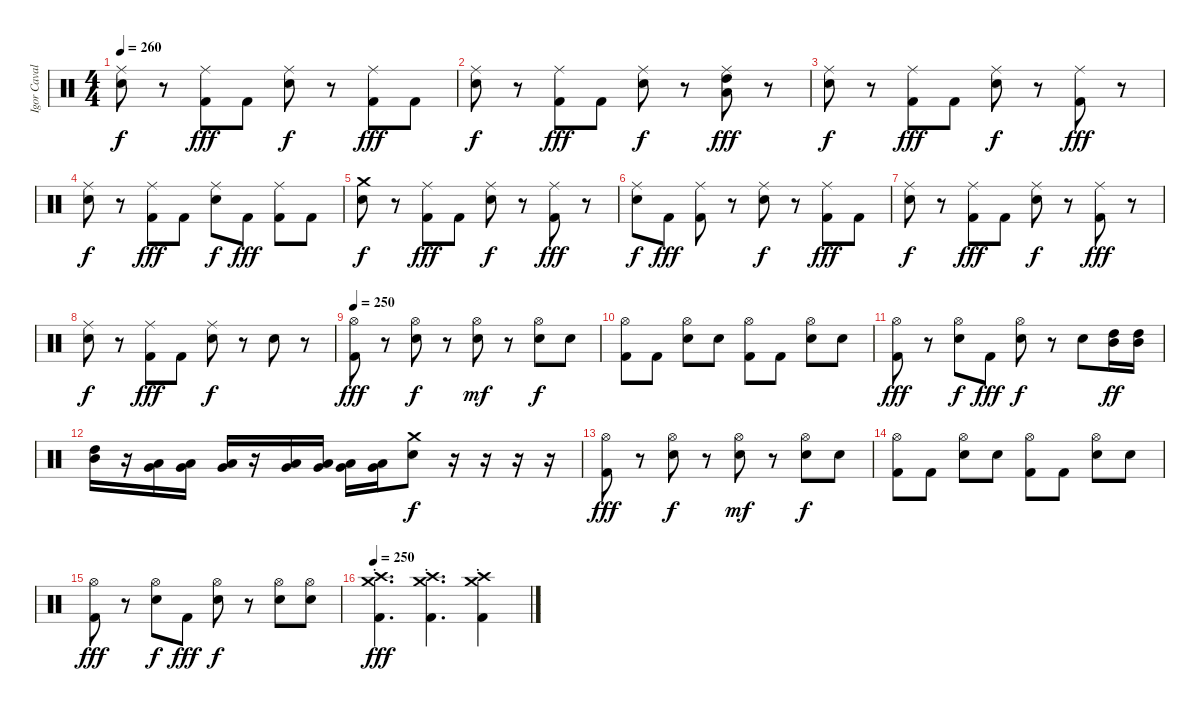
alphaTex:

\track ("Igor Cavalera" "Igor Caval") {instrument percussion}
\staff {score}
\articulation defaults
\ts (4 4)
\tempo 260
\clef neutral
\ks c
("Electric Snare (hit)" "Ride (middle)").8{dy f} r.8 ("Ride (middle)" "Kick (hit) 2").8{dy fff} "Kick (hit) 2".8 ("Electric Snare (hit)" "Ride (middle)").8{dy f} r.8 ("Ride (middle)" "Kick (hit) 2").8{dy fff} "Kick (hit) 2".8 |
("Electric Snare (hit)" "Ride (middle)").8{dy f} r.8 ("Ride (middle)" "Kick (hit) 2").8{dy fff} "Kick (hit) 2".8 ("Electric Snare (hit)" "Ride (middle)").8{dy f} r.8 ("High Tom (hit)" "Low Tom (hit)" "Ride (middle)").8{dy fff} r.8 |
("Electric Snare (hit)" "Ride (middle)").8{dy f} r.8 ("Ride (middle)" "Kick (hit) 2").8{dy fff} "Kick (hit) 2".8 ("Electric Snare (hit)" "Ride (middle)").8{dy f} r.8 ("Ride (middle)" "Kick (hit) 2").8{dy fff} r.8 |
("Electric Snare (hit)" "Ride (middle)").8{dy f} r.8 ("Ride (middle)" "Kick (hit) 2").8{dy fff} "Kick (hit) 2".8 ("Electric Snare (hit)" "Ride (middle)").8{dy f} "Kick (hit) 2".8{dy fff} ("Ride (middle)" "Kick (hit) 2").8 "Kick (hit) 2".8 |
("Crash medium (hit)" "Electric Snare (hit)").8{dy f} r.8 ("Ride (middle)" "Kick (hit) 2").8{dy fff} "Kick (hit) 2".8 ("Electric Snare (hit)" "Ride (middle)").8{dy f} r.8 ("Ride (middle)" "Kick (hit) 2").8{dy fff} r.8 |
("Electric Snare (hit)" "Ride (middle)").8{dy f} "Kick (hit) 2".8{dy fff} ("Ride (middle)" "Kick (hit) 2").8 r.8 ("Electric Snare (hit)" "Ride (middle)").8{dy f} r.8 ("Ride (middle)" "Kick (hit) 2").8{dy fff} "Kick (hit) 2".8 |
("Electric Snare (hit)" "Ride (middle)").8{dy f} r.8 ("Ride (middle)" "Kick (hit) 2").8{dy fff} "Kick (hit) 2".8 ("Electric Snare (hit)" "Ride (middle)").8{dy f} r.8 ("Ride (middle)" "Kick (hit) 2").8{dy fff} r.8 |
("Electric Snare (hit)" "Ride (middle)").8{dy f} r.8 ("Ride (middle)" "Kick (hit) 2").8{dy fff} "Kick (hit) 2".8 ("Electric Snare (hit)" "Ride (middle)").8{dy f} r.8 "Electric Snare (hit)".8 r.8 |
\tempo 248
\tempo 250
("Hi-Hat (open)" "Kick (hit) 2").8{dy fff} r.8 ("Electric Snare (hit)" "Hi-Hat (open)").8{dy f} r.8 ("Electric Snare (hit)" "Hi-Hat (open)").8{dy mf} r.8 ("Electric Snare (hit)" "Hi-Hat (open)").8{dy f} "Electric Snare (hit)".8 |
("Hi-Hat (open)" "Kick (hit) 2").8 "Kick (hit) 2".8 ("Electric Snare (hit)" "Hi-Hat (open)").8 "Electric Snare (hit)".8 ("Hi-Hat (open)" "Kick (hit) 2").8 "Kick (hit) 2".8 ("Electric Snare (hit)" "Hi-Hat (open)").8 "Electric Snare (hit)".8 |
("Hi-Hat (open)" "Kick (hit) 2").8{dy fff} r.8 ("Electric Snare (hit)" "Hi-Hat (open)").8{dy f} "Kick (hit) 2".8{dy fff} ("Electric Snare (hit)" "Hi-Hat (open)").8{dy f} r.8 "Electric Snare (hit)".8 ("High Tom (hit)" "Mid Tom (hit)").16{dy ff} ("High Tom (hit)" "Mid Tom (hit)").16 |
("High Tom (hit)" "Mid Tom (hit)").16 r.16 ("Low Tom (hit)" "Very Low Tom (hit)").16 ("Low Tom (hit)" "Very Low Tom (hit)").16 ("Low Tom (hit)" "Very Low Tom (hit)").16 r.16 ("Very Low Tom (hit)" "Low Floor Tom (hit)").16 ("Very Low Tom (hit)" "Low Floor Tom (hit)").16 ("Very Low Tom (hit)" "Low Floor Tom (hit)").16 ("Very Low Tom (hit)" "Low Floor Tom (hit)").16 ("Crash medium (hit)" "Electric Snare (hit)").8{dy f} r.16 r.16 r.16 r.16 |
("Hi-Hat (open)" "Kick (hit) 2").8{dy fff} r.8 ("Electric Snare (hit)" "Hi-Hat (open)").8{dy f} r.8 ("Electric Snare (hit)" "Hi-Hat (open)").8{dy mf} r.8 ("Electric Snare (hit)" "Hi-Hat (open)").8{dy f} "Electric Snare (hit)".8 |
("Hi-Hat (open)" "Kick (hit) 2").8 "Kick (hit) 2".8 ("Electric Snare (hit)" "Hi-Hat (open)").8 "Electric Snare (hit)".8 ("Hi-Hat (open)" "Kick (hit) 2").8 "Kick (hit) 2".8 ("Electric Snare (hit)" "Hi-Hat (open)").8 "Electric Snare (hit)".8 |
("Hi-Hat (open)" "Kick (hit) 2").8{dy fff} r.8 ("Electric Snare (hit)" "Hi-Hat (open)").8{dy f} "Kick (hit) 2".8{dy fff} ("Electric Snare (hit)" "Hi-Hat (open)").8{dy f} r.8 ("Electric Snare (hit)" "Hi-Hat (open)").8 ("Electric Snare (hit)" "Hi-Hat (open)").8 |
\tempo 250
("Crash high (hit)"{st} "Crash medium (hit)"{st} "Kick (hit) 2"{st}).4{d dy fff} ("Crash high (hit)"{st} "Crash medium (hit)"{st} "Kick (hit) 2"{st}).4{d} ("Crash high (hit)"{st} "Crash medium (hit)"{st} "Kick (hit) 2"{st}).4
